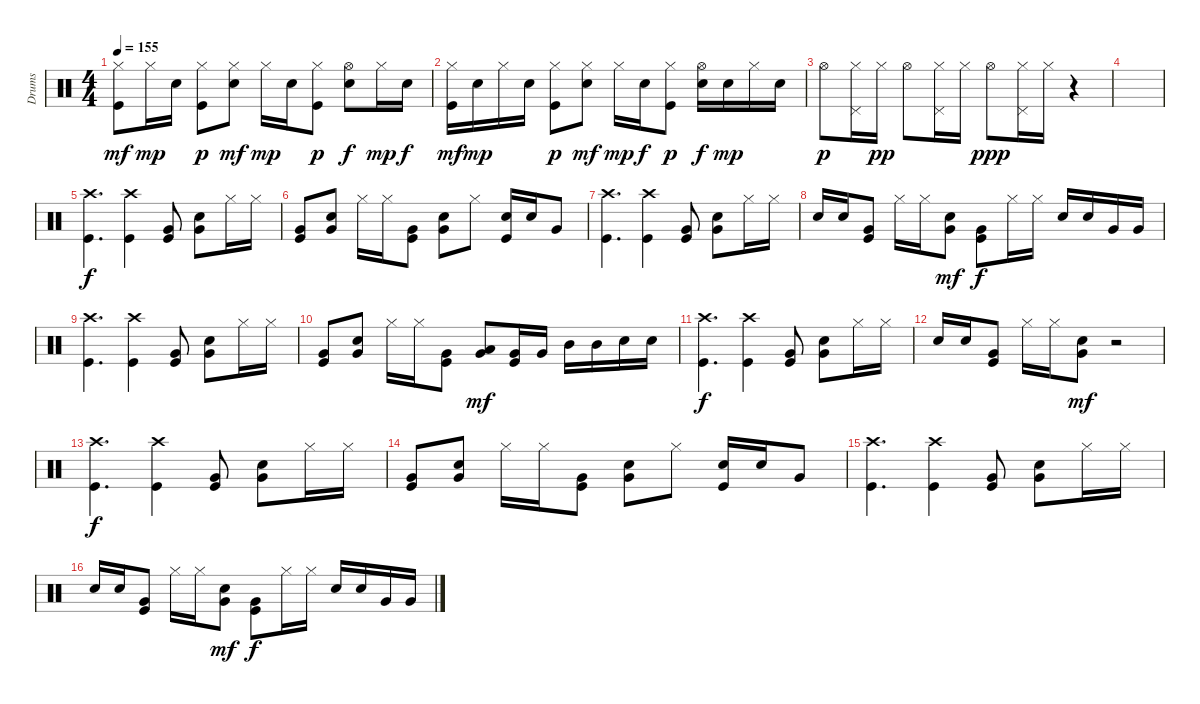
\track ("Drums" "Drums") {instrument percussion}
\staff {score}
\articulation defaults
\ts (4 4)
\tempo 155
\clef neutral
\ks c
("Hi-Hat (closed)" "Kick (hit)").8{dy mf} "Hi-Hat (closed)".16{dy mp} "Snare (hit) 2".16 ("Kick (hit)" "Hi-Hat (closed)").8{dy p} ("Snare (hit) 2" "Hi-Hat (closed)").8{dy mf} "Hi-Hat (closed)".16{dy mp} "Snare (hit) 2".16 ("Hi-Hat (closed)" "Kick (hit)").8{dy p} ("Snare (hit) 2" "Hi-Hat (open)").8{dy f} "Hi-Hat (closed)".16{dy mp} "Snare (hit) 2".16{dy f} |
("Hi-Hat (closed)" "Kick (hit)").16{dy mf} "Snare (hit) 2".16{dy mp} "Hi-Hat (closed)".16 "Snare (hit) 2".16 ("Kick (hit)" "Hi-Hat (closed)").8{dy p} ("Snare (hit) 2" "Hi-Hat (closed)").8{dy mf} "Hi-Hat (closed)".16{dy mp} "Snare (hit) 2".16{dy f} ("Hi-Hat (closed)" "Kick (hit)").8{dy p} ("Snare (hit) 2" "Hi-Hat (open)").16{dy f} "Snare (hit) 2".16{dy mp} "Hi-Hat (closed)".16 "Snare (hit) 2".16 |
"Hi-Hat (open)".8{dy p} ("Pedal Hi-Hat (hit)" "Hi-Hat (closed)").16 "Hi-Hat (closed)".16{dy pp} "Hi-Hat (open)".8 ("Pedal Hi-Hat (hit)" "Hi-Hat (closed)").16 "Hi-Hat (closed)".16 "Hi-Hat (open)".8{dy ppp} ("Pedal Hi-Hat (hit)" "Hi-Hat (closed)").16 "Hi-Hat (closed)".16 r.4 |
|
("Crash high (hit)" "Kick (hit)").4{d dy f} ("Crash high (hit)" "Kick (hit)").4 ("Kick (hit)" "Very Low Tom (hit)").8 ("Snare (hit) 2" "Very Low Tom (hit)").8 "Hi-Hat (closed)".16 "Hi-Hat (closed)".16 |
("Very Low Tom (hit)" "Kick (hit)").8 ("Snare (hit) 2" "Very Low Tom (hit)").8 "Hi-Hat (closed)".16 "Hi-Hat (closed)".16 ("Very Low Tom (hit)" "Kick (hit)").8 ("Snare (hit) 2" "Very Low Tom (hit)").8 "Hi-Hat (closed)".8 ("Snare (hit) 2" "Kick (hit)").16 "Snare (hit) 2".16 "Very Low Tom (hit)".8 |
("Crash high (hit)" "Kick (hit)").4{d} ("Crash high (hit)" "Kick (hit)").4 ("Kick (hit)" "Very Low Tom (hit)").8 ("Snare (hit) 2" "Very Low Tom (hit)").8 "Hi-Hat (closed)".16 "Hi-Hat (closed)".16 |
"Snare (hit) 2".16 "Snare (hit) 2".16 ("Kick (hit)" "Very Low Tom (hit)").8 "Hi-Hat (closed)".16 "Hi-Hat (closed)".16 ("Snare (hit) 2" "Very Low Tom (hit)").8{dy mf} ("Kick (hit)" "Very Low Tom (hit)").8{dy f} "Hi-Hat (closed)".16 "Hi-Hat (closed)".16 "Snare (hit) 2".16 "Snare (hit) 2".16 "Very Low Tom (hit)".16 "Very Low Tom (hit)".16 |
("Crash high (hit)" "Kick (hit)").4{d} ("Crash high (hit)" "Kick (hit)").4 ("Kick (hit)" "Very Low Tom (hit)").8 ("Snare (hit) 2" "Very Low Tom (hit)").8 "Hi-Hat (closed)".16 "Hi-Hat (closed)".16 |
("Very Low Tom (hit)" "Kick (hit)").8 ("Snare (hit) 2" "Very Low Tom (hit)").8 "Hi-Hat (closed)".16 "Hi-Hat (closed)".16 ("Very Low Tom (hit)" "Kick (hit)").8 ("Low Tom (hit)" "Very Low Tom (hit)").8{dy mf} ("Kick (hit)" "Very Low Tom (hit)").16 "Very Low Tom (hit)".16 "Mid Tom (hit)".16 "Mid Tom (hit)".16 "Snare (hit) 2".16 "Snare (hit) 2".16 |
("Crash high (hit)" "Kick (hit)").4{d dy f} ("Crash high (hit)" "Kick (hit)").4 ("Kick (hit)" "Very Low Tom (hit)").8 ("Snare (hit) 2" "Very Low Tom (hit)").8 "Hi-Hat (closed)".16 "Hi-Hat (closed)".16 |
"Snare (hit) 2".16 "Snare (hit) 2".16 ("Kick (hit)" "Very Low Tom (hit)").8 "Hi-Hat (closed)".16 "Hi-Hat (closed)".16 ("Snare (hit) 2" "Very Low Tom (hit)").8{dy mf} r.2 |
("Crash high (hit)" "Kick (hit)").4{d dy f} ("Crash high (hit)" "Kick (hit)").4 ("Kick (hit)" "Very Low Tom (hit)").8 ("Snare (hit) 2" "Very Low Tom (hit)").8 "Hi-Hat (closed)".16 "Hi-Hat (closed)".16 |
("Very Low Tom (hit)" "Kick (hit)").8 ("Snare (hit) 2" "Very Low Tom (hit)").8 "Hi-Hat (closed)".16 "Hi-Hat (closed)".16 ("Very Low Tom (hit)" "Kick (hit)").8 ("Snare (hit) 2" "Very Low Tom (hit)").8 "Hi-Hat (closed)".8 ("Snare (hit) 2" "Kick (hit)").16 "Snare (hit) 2".16 "Very Low Tom (hit)".8 |
("Crash high (hit)" "Kick (hit)").4{d} ("Crash high (hit)" "Kick (hit)").4 ("Kick (hit)" "Very Low Tom (hit)").8 ("Snare (hit) 2" "Very Low Tom (hit)").8 "Hi-Hat (closed)".16 "Hi-Hat (closed)".16 |
"Snare (hit) 2".16 "Snare (hit) 2".16 ("Kick (hit)" "Very Low Tom (hit)").8 "Hi-Hat (closed)".16 "Hi-Hat (closed)".16 ("Snare (hit) 2" "Very Low Tom (hit)").8{dy mf} ("Kick (hit)" "Very Low Tom (hit)").8{dy f} "Hi-Hat (closed)".16 "Hi-Hat (closed)".16 "Snare (hit) 2".16 "Snare (hit) 2".16 "Very Low Tom (hit)".16 "Very Low Tom (hit)".16
